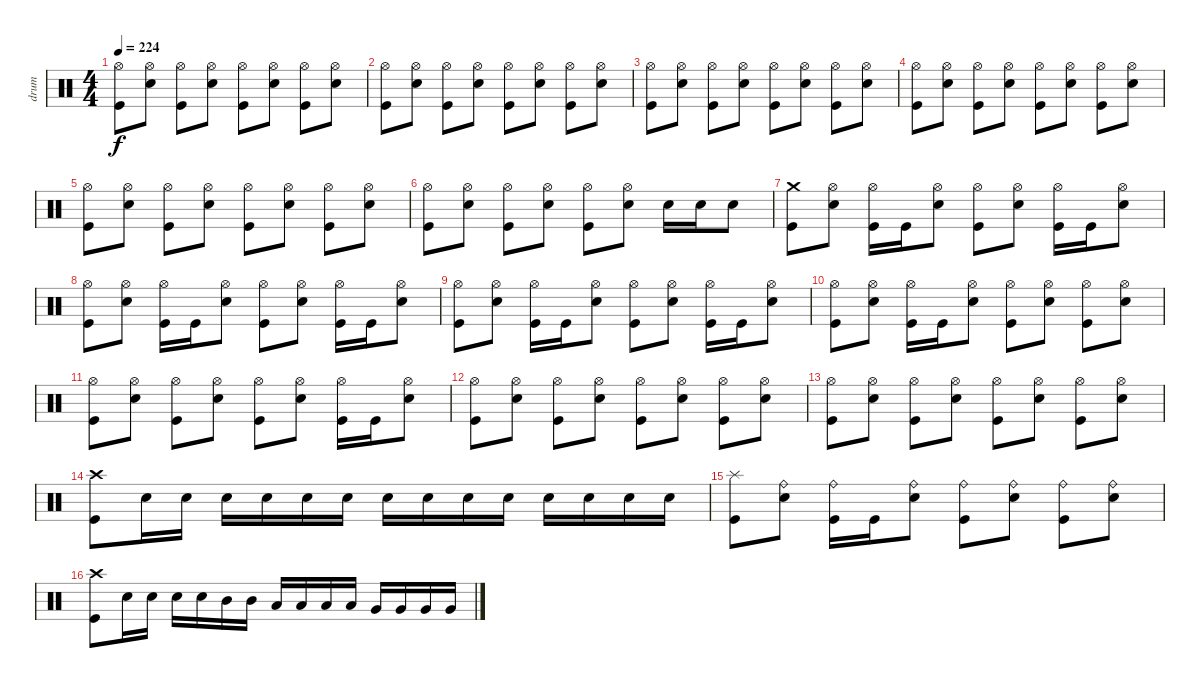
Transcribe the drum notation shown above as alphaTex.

\track ("drum" "drum") {instrument percussion}
\staff {score}
\articulation defaults
\ts (4 4)
\tempo 224
\clef neutral
\ks c
("Kick (hit)" "Hi-Hat (open)").8{dy f} ("Electric Snare (hit)" "Hi-Hat (open)").8 ("Kick (hit)" "Hi-Hat (open)").8 ("Electric Snare (hit)" "Hi-Hat (open)").8 ("Kick (hit)" "Hi-Hat (open)").8 ("Electric Snare (hit)" "Hi-Hat (open)").8 ("Kick (hit)" "Hi-Hat (open)").8 ("Electric Snare (hit)" "Hi-Hat (open)").8 |
("Kick (hit)" "Hi-Hat (open)").8 ("Electric Snare (hit)" "Hi-Hat (open)").8 ("Kick (hit)" "Hi-Hat (open)").8 ("Electric Snare (hit)" "Hi-Hat (open)").8 ("Kick (hit)" "Hi-Hat (open)").8 ("Electric Snare (hit)" "Hi-Hat (open)").8 ("Kick (hit)" "Hi-Hat (open)").8 ("Electric Snare (hit)" "Hi-Hat (open)").8 |
("Kick (hit)" "Hi-Hat (open)").8 ("Electric Snare (hit)" "Hi-Hat (open)").8 ("Kick (hit)" "Hi-Hat (open)").8 ("Electric Snare (hit)" "Hi-Hat (open)").8 ("Kick (hit)" "Hi-Hat (open)").8 ("Electric Snare (hit)" "Hi-Hat (open)").8 ("Kick (hit)" "Hi-Hat (open)").8 ("Electric Snare (hit)" "Hi-Hat (open)").8 |
("Kick (hit)" "Hi-Hat (open)").8 ("Electric Snare (hit)" "Hi-Hat (open)").8 ("Kick (hit)" "Hi-Hat (open)").8 ("Electric Snare (hit)" "Hi-Hat (open)").8 ("Kick (hit)" "Hi-Hat (open)").8 ("Electric Snare (hit)" "Hi-Hat (open)").8 ("Kick (hit)" "Hi-Hat (open)").8 ("Electric Snare (hit)" "Hi-Hat (open)").8 |
("Kick (hit)" "Hi-Hat (open)").8 ("Electric Snare (hit)" "Hi-Hat (open)").8 ("Kick (hit)" "Hi-Hat (open)").8 ("Electric Snare (hit)" "Hi-Hat (open)").8 ("Kick (hit)" "Hi-Hat (open)").8 ("Electric Snare (hit)" "Hi-Hat (open)").8 ("Kick (hit)" "Hi-Hat (open)").8 ("Electric Snare (hit)" "Hi-Hat (open)").8 |
("Kick (hit)" "Hi-Hat (open)").8 ("Electric Snare (hit)" "Hi-Hat (open)").8 ("Kick (hit)" "Hi-Hat (open)").8 ("Electric Snare (hit)" "Hi-Hat (open)").8 ("Kick (hit)" "Hi-Hat (open)").8 ("Electric Snare (hit)" "Hi-Hat (open)").8 "Electric Snare (hit)".16 "Electric Snare (hit)".16 "Electric Snare (hit)".8 |
("Kick (hit)" "Crash medium (hit)").8 ("Electric Snare (hit)" "Hi-Hat (open)").8 ("Kick (hit)" "Hi-Hat (open)").16 "Kick (hit)".16 ("Electric Snare (hit)" "Hi-Hat (open)").8 ("Kick (hit)" "Hi-Hat (open)").8 ("Electric Snare (hit)" "Hi-Hat (open)").8 ("Kick (hit)" "Hi-Hat (open)").16 "Kick (hit)".16 ("Electric Snare (hit)" "Hi-Hat (open)").8 |
("Kick (hit)" "Hi-Hat (open)").8 ("Electric Snare (hit)" "Hi-Hat (open)").8 ("Kick (hit)" "Hi-Hat (open)").16 "Kick (hit)".16 ("Electric Snare (hit)" "Hi-Hat (open)").8 ("Kick (hit)" "Hi-Hat (open)").8 ("Electric Snare (hit)" "Hi-Hat (open)").8 ("Kick (hit)" "Hi-Hat (open)").16 "Kick (hit)".16 ("Electric Snare (hit)" "Hi-Hat (open)").8 |
("Kick (hit)" "Hi-Hat (open)").8 ("Electric Snare (hit)" "Hi-Hat (open)").8 ("Kick (hit)" "Hi-Hat (open)").16 "Kick (hit)".16 ("Electric Snare (hit)" "Hi-Hat (open)").8 ("Kick (hit)" "Hi-Hat (open)").8 ("Electric Snare (hit)" "Hi-Hat (open)").8 ("Kick (hit)" "Hi-Hat (open)").16 "Kick (hit)".16 ("Electric Snare (hit)" "Hi-Hat (open)").8 |
("Kick (hit)" "Hi-Hat (open)").8 ("Electric Snare (hit)" "Hi-Hat (open)").8 ("Kick (hit)" "Hi-Hat (open)").16 "Kick (hit)".16 ("Electric Snare (hit)" "Hi-Hat (open)").8 ("Kick (hit)" "Hi-Hat (open)").8 ("Electric Snare (hit)" "Hi-Hat (open)").8 ("Kick (hit)" "Hi-Hat (open)").8 ("Electric Snare (hit)" "Hi-Hat (open)").8 |
("Kick (hit)" "Hi-Hat (open)").8 ("Electric Snare (hit)" "Hi-Hat (open)").8 ("Kick (hit)" "Hi-Hat (open)").8 ("Electric Snare (hit)" "Hi-Hat (open)").8 ("Kick (hit)" "Hi-Hat (open)").8 ("Electric Snare (hit)" "Hi-Hat (open)").8 ("Kick (hit)" "Hi-Hat (open)").16 "Kick (hit)".16 ("Electric Snare (hit)" "Hi-Hat (open)").8 |
("Kick (hit)" "Hi-Hat (open)").8 ("Electric Snare (hit)" "Hi-Hat (open)").8 ("Kick (hit)" "Hi-Hat (open)").8 ("Electric Snare (hit)" "Hi-Hat (open)").8 ("Kick (hit)" "Hi-Hat (open)").8 ("Electric Snare (hit)" "Hi-Hat (open)").8 ("Kick (hit)" "Hi-Hat (open)").8 ("Electric Snare (hit)" "Hi-Hat (open)").8 |
("Kick (hit)" "Hi-Hat (open)").8 ("Electric Snare (hit)" "Hi-Hat (open)").8 ("Kick (hit)" "Hi-Hat (open)").8 ("Electric Snare (hit)" "Hi-Hat (open)").8 ("Kick (hit)" "Hi-Hat (open)").8 ("Electric Snare (hit)" "Hi-Hat (open)").8 ("Kick (hit)" "Hi-Hat (open)").8 ("Electric Snare (hit)" "Hi-Hat (open)").8 |
("Kick (hit)" "Crash high (hit)").8 "Electric Snare (hit)".16 "Electric Snare (hit)".16 "Electric Snare (hit)".16 "Electric Snare (hit)".16 "Electric Snare (hit)".16 "Electric Snare (hit)".16 "Electric Snare (hit)".16 "Electric Snare (hit)".16 "Electric Snare (hit)".16 "Electric Snare (hit)".16 "Electric Snare (hit)".16 "Electric Snare (hit)".16 "Electric Snare (hit)".16 "Electric Snare (hit)".16 |
("Kick (hit)" "Splash (hit)").8 ("Electric Snare (hit)" "Ride (bell)").8 ("Kick (hit)" "Ride (bell)").16 "Kick (hit)".16 ("Electric Snare (hit)" "Ride (bell)").8 ("Kick (hit)" "Ride (bell)").8 ("Electric Snare (hit)" "Ride (bell)").8 ("Kick (hit)" "Ride (bell)").8 ("Electric Snare (hit)" "Ride (bell)").8 |
("Kick (hit)" "Crash high (hit)").8 "Electric Snare (hit)".16 "Electric Snare (hit)".16 "Electric Snare (hit)".16 "Electric Snare (hit)".16 "Mid Tom (hit)".16 "Mid Tom (hit)".16 "Low Tom (hit)".16 "Low Tom (hit)".16 "Low Tom (hit)".16 "Low Tom (hit)".16 "Very Low Tom (hit)".16 "Very Low Tom (hit)".16 "Very Low Tom (hit)".16 "Very Low Tom (hit)".16
